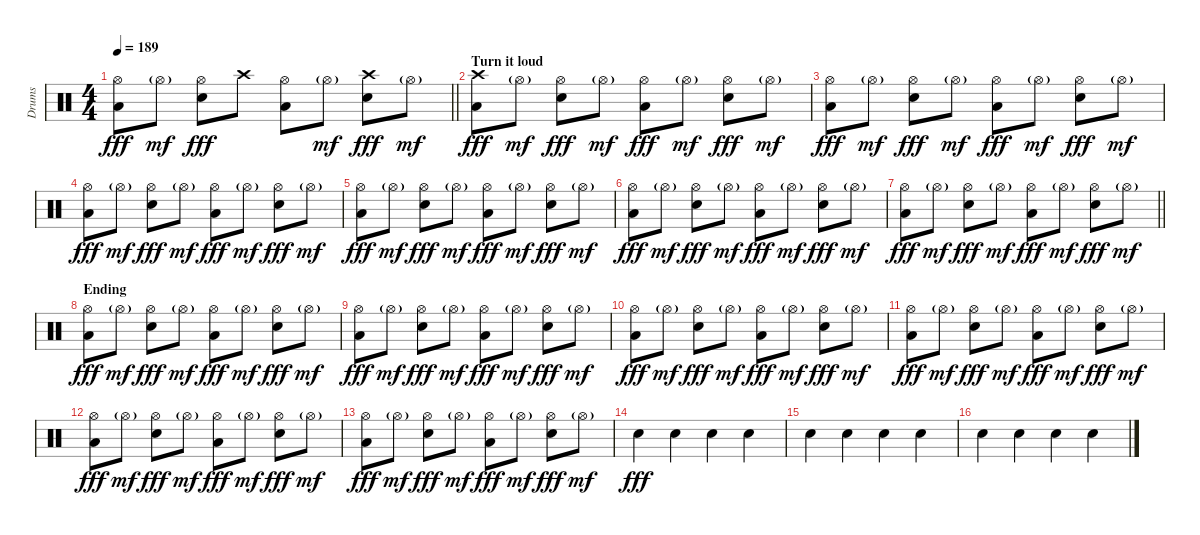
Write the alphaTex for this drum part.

\track ("Drums" "Drums") {instrument percussion}
\staff {score}
\articulation defaults
\ts (4 4)
\tempo 189
\clef neutral
\barLineRight lightlight
\ks c
("Hi-Hat (open)" "Low Floor Tom (hit)").8{dy fff} "Hi-Hat (open)"{g}.8{dy mf} ("Hi-Hat (open)" "Snare (hit) 2").8{dy fff} "Crash high (hit)".8 ("Hi-Hat (open)" "Low Floor Tom (hit)").8 "Hi-Hat (open)"{g}.8{dy mf} ("Crash high (hit)" "Snare (hit) 2").8{dy fff} "Hi-Hat (open)"{g}.8{dy mf} |
\section ("" "Turn it loud")
("Crash high (hit)" "Low Floor Tom (hit)").8{dy fff} "Hi-Hat (open)"{g}.8{dy mf} ("Hi-Hat (open)" "Snare (hit) 2").8{dy fff} "Hi-Hat (open)"{g}.8{dy mf} ("Hi-Hat (open)" "Low Floor Tom (hit)").8{dy fff} "Hi-Hat (open)"{g}.8{dy mf} ("Hi-Hat (open)" "Snare (hit) 2").8{dy fff} "Hi-Hat (open)"{g}.8{dy mf} |
("Hi-Hat (open)" "Low Floor Tom (hit)").8{dy fff} "Hi-Hat (open)"{g}.8{dy mf} ("Hi-Hat (open)" "Snare (hit) 2").8{dy fff} "Hi-Hat (open)"{g}.8{dy mf} ("Hi-Hat (open)" "Low Floor Tom (hit)").8{dy fff} "Hi-Hat (open)"{g}.8{dy mf} ("Hi-Hat (open)" "Snare (hit) 2").8{dy fff} "Hi-Hat (open)"{g}.8{dy mf} |
("Hi-Hat (open)" "Low Floor Tom (hit)").8{dy fff} "Hi-Hat (open)"{g}.8{dy mf} ("Hi-Hat (open)" "Snare (hit) 2").8{dy fff} "Hi-Hat (open)"{g}.8{dy mf} ("Hi-Hat (open)" "Low Floor Tom (hit)").8{dy fff} "Hi-Hat (open)"{g}.8{dy mf} ("Hi-Hat (open)" "Snare (hit) 2").8{dy fff} "Hi-Hat (open)"{g}.8{dy mf} |
("Hi-Hat (open)" "Low Floor Tom (hit)").8{dy fff} "Hi-Hat (open)"{g}.8{dy mf} ("Hi-Hat (open)" "Snare (hit) 2").8{dy fff} "Hi-Hat (open)"{g}.8{dy mf} ("Hi-Hat (open)" "Low Floor Tom (hit)").8{dy fff} "Hi-Hat (open)"{g}.8{dy mf} ("Hi-Hat (open)" "Snare (hit) 2").8{dy fff} "Hi-Hat (open)"{g}.8{dy mf} |
("Hi-Hat (open)" "Low Floor Tom (hit)").8{dy fff} "Hi-Hat (open)"{g}.8{dy mf} ("Hi-Hat (open)" "Snare (hit) 2").8{dy fff} "Hi-Hat (open)"{g}.8{dy mf} ("Hi-Hat (open)" "Low Floor Tom (hit)").8{dy fff} "Hi-Hat (open)"{g}.8{dy mf} ("Hi-Hat (open)" "Snare (hit) 2").8{dy fff} "Hi-Hat (open)"{g}.8{dy mf} |
\barLineRight lightlight
("Hi-Hat (open)" "Low Floor Tom (hit)").8{dy fff} "Hi-Hat (open)"{g}.8{dy mf} ("Hi-Hat (open)" "Snare (hit) 2").8{dy fff} "Hi-Hat (open)"{g}.8{dy mf} ("Hi-Hat (open)" "Low Floor Tom (hit)").8{dy fff} "Hi-Hat (open)"{g}.8{dy mf} ("Hi-Hat (open)" "Snare (hit) 2").8{dy fff} "Hi-Hat (open)"{g}.8{dy mf} |
\section ("" "Ending")
("Hi-Hat (open)" "Low Floor Tom (hit)").8{dy fff} "Hi-Hat (open)"{g}.8{dy mf} ("Hi-Hat (open)" "Snare (hit) 2").8{dy fff} "Hi-Hat (open)"{g}.8{dy mf} ("Hi-Hat (open)" "Low Floor Tom (hit)").8{dy fff} "Hi-Hat (open)"{g}.8{dy mf} ("Hi-Hat (open)" "Snare (hit) 2").8{dy fff} "Hi-Hat (open)"{g}.8{dy mf} |
("Hi-Hat (open)" "Low Floor Tom (hit)").8{dy fff} "Hi-Hat (open)"{g}.8{dy mf} ("Hi-Hat (open)" "Snare (hit) 2").8{dy fff} "Hi-Hat (open)"{g}.8{dy mf} ("Hi-Hat (open)" "Low Floor Tom (hit)").8{dy fff} "Hi-Hat (open)"{g}.8{dy mf} ("Hi-Hat (open)" "Snare (hit) 2").8{dy fff} "Hi-Hat (open)"{g}.8{dy mf} |
("Hi-Hat (open)" "Low Floor Tom (hit)").8{dy fff} "Hi-Hat (open)"{g}.8{dy mf} ("Hi-Hat (open)" "Snare (hit) 2").8{dy fff} "Hi-Hat (open)"{g}.8{dy mf} ("Hi-Hat (open)" "Low Floor Tom (hit)").8{dy fff} "Hi-Hat (open)"{g}.8{dy mf} ("Hi-Hat (open)" "Snare (hit) 2").8{dy fff} "Hi-Hat (open)"{g}.8{dy mf} |
("Hi-Hat (open)" "Low Floor Tom (hit)").8{dy fff} "Hi-Hat (open)"{g}.8{dy mf} ("Hi-Hat (open)" "Snare (hit) 2").8{dy fff} "Hi-Hat (open)"{g}.8{dy mf} ("Hi-Hat (open)" "Low Floor Tom (hit)").8{dy fff} "Hi-Hat (open)"{g}.8{dy mf} ("Hi-Hat (open)" "Snare (hit) 2").8{dy fff} "Hi-Hat (open)"{g}.8{dy mf} |
("Hi-Hat (open)" "Low Floor Tom (hit)").8{dy fff} "Hi-Hat (open)"{g}.8{dy mf} ("Hi-Hat (open)" "Snare (hit) 2").8{dy fff} "Hi-Hat (open)"{g}.8{dy mf} ("Hi-Hat (open)" "Low Floor Tom (hit)").8{dy fff} "Hi-Hat (open)"{g}.8{dy mf} ("Hi-Hat (open)" "Snare (hit) 2").8{dy fff} "Hi-Hat (open)"{g}.8{dy mf} |
("Hi-Hat (open)" "Low Floor Tom (hit)").8{dy fff} "Hi-Hat (open)"{g}.8{dy mf} ("Hi-Hat (open)" "Snare (hit) 2").8{dy fff} "Hi-Hat (open)"{g}.8{dy mf} ("Hi-Hat (open)" "Low Floor Tom (hit)").8{dy fff} "Hi-Hat (open)"{g}.8{dy mf} ("Hi-Hat (open)" "Snare (hit) 2").8{dy fff} "Hi-Hat (open)"{g}.8{dy mf} |
"Snare (hit) 2".4{dy fff} "Snare (hit) 2".4 "Snare (hit) 2".4 "Snare (hit) 2".4 |
"Snare (hit) 2".4 "Snare (hit) 2".4 "Snare (hit) 2".4 "Snare (hit) 2".4 |
"Snare (hit) 2".4 "Snare (hit) 2".4 "Snare (hit) 2".4 "Snare (hit) 2".4
